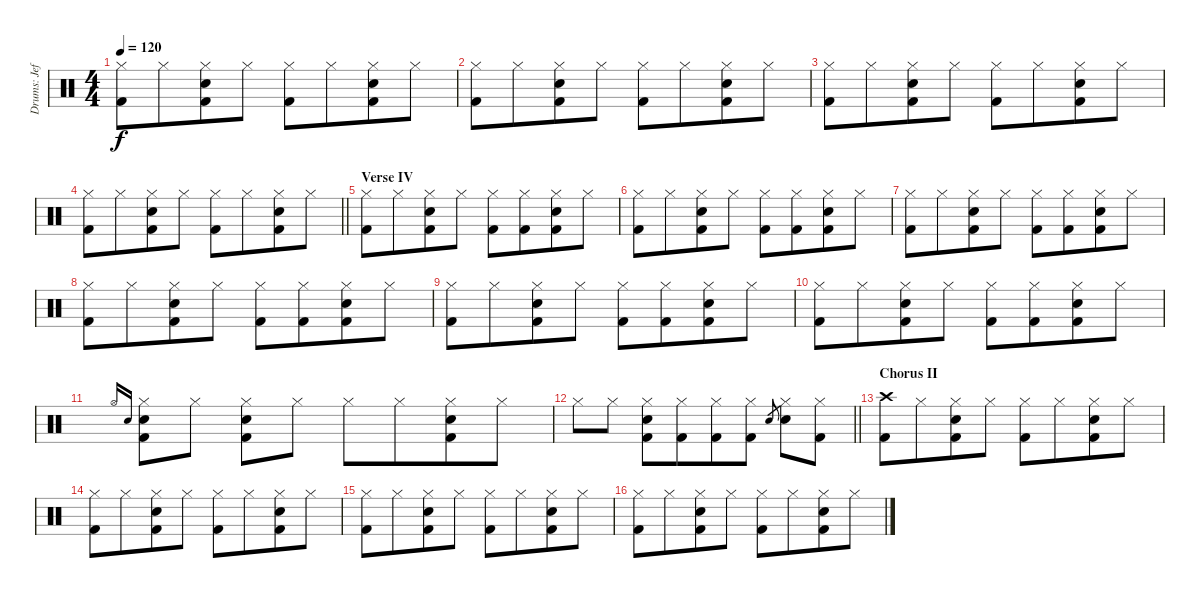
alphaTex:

\track ("Drums: Jeff" "Drums: Jef") {instrument percussion}
\staff {score}
\articulation defaults
\ts (4 4)
\tempo 120
\clef neutral
\ks c
("Hi-Hat (closed)" "Kick (hit) 2").8{dy f} "Hi-Hat (closed)".8{beam merge} ("Hi-Hat (closed)" "Electric Snare (hit)" "Kick (hit) 2").8 "Hi-Hat (closed)".8 ("Hi-Hat (closed)" "Kick (hit) 2").8 "Hi-Hat (closed)".8{beam merge} ("Hi-Hat (closed)" "Electric Snare (hit)" "Kick (hit) 2").8 "Hi-Hat (closed)".8 |
("Hi-Hat (closed)" "Kick (hit) 2").8 "Hi-Hat (closed)".8{beam merge} ("Hi-Hat (closed)" "Electric Snare (hit)" "Kick (hit) 2").8 "Hi-Hat (closed)".8 ("Hi-Hat (closed)" "Kick (hit) 2").8 "Hi-Hat (closed)".8{beam merge} ("Hi-Hat (closed)" "Electric Snare (hit)" "Kick (hit) 2").8 "Hi-Hat (closed)".8 |
("Hi-Hat (closed)" "Kick (hit) 2").8 "Hi-Hat (closed)".8{beam merge} ("Hi-Hat (closed)" "Electric Snare (hit)" "Kick (hit) 2").8 "Hi-Hat (closed)".8 ("Hi-Hat (closed)" "Kick (hit) 2").8 "Hi-Hat (closed)".8{beam merge} ("Hi-Hat (closed)" "Electric Snare (hit)" "Kick (hit) 2").8 "Hi-Hat (closed)".8 |
\barLineRight lightlight
("Hi-Hat (closed)" "Kick (hit) 2").8 "Hi-Hat (closed)".8{beam merge} ("Hi-Hat (closed)" "Electric Snare (hit)" "Kick (hit) 2").8 "Hi-Hat (closed)".8 ("Hi-Hat (closed)" "Kick (hit) 2").8 "Hi-Hat (closed)".8{beam merge} ("Hi-Hat (closed)" "Electric Snare (hit)" "Kick (hit) 2").8 "Hi-Hat (closed)".8 |
\section ("" "Verse IV")
("Hi-Hat (closed)" "Kick (hit) 2").8 "Hi-Hat (closed)".8{beam merge} ("Hi-Hat (closed)" "Electric Snare (hit)" "Kick (hit) 2").8 "Hi-Hat (closed)".8 ("Hi-Hat (closed)" "Kick (hit) 2").8 ("Hi-Hat (closed)" "Kick (hit) 2").8{beam merge} ("Hi-Hat (closed)" "Electric Snare (hit)" "Kick (hit) 2").8 "Hi-Hat (closed)".8 |
("Hi-Hat (closed)" "Kick (hit) 2").8 "Hi-Hat (closed)".8{beam merge} ("Hi-Hat (closed)" "Electric Snare (hit)" "Kick (hit) 2").8 "Hi-Hat (closed)".8 ("Hi-Hat (closed)" "Kick (hit) 2").8 ("Hi-Hat (closed)" "Kick (hit) 2").8{beam merge} ("Hi-Hat (closed)" "Electric Snare (hit)" "Kick (hit) 2").8 "Hi-Hat (closed)".8 |
("Hi-Hat (closed)" "Kick (hit) 2").8 "Hi-Hat (closed)".8{beam merge} ("Hi-Hat (closed)" "Electric Snare (hit)" "Kick (hit) 2").8 "Hi-Hat (closed)".8 ("Hi-Hat (closed)" "Kick (hit) 2").8 ("Hi-Hat (closed)" "Kick (hit) 2").8{beam merge} ("Hi-Hat (closed)" "Electric Snare (hit)" "Kick (hit) 2").8 "Hi-Hat (closed)".8 |
("Hi-Hat (closed)" "Kick (hit) 2").8 "Hi-Hat (closed)".8{beam merge} ("Hi-Hat (closed)" "Electric Snare (hit)" "Kick (hit) 2").8 "Hi-Hat (closed)".8 ("Hi-Hat (closed)" "Kick (hit) 2").8 ("Hi-Hat (closed)" "Kick (hit) 2").8{beam merge} ("Hi-Hat (closed)" "Electric Snare (hit)" "Kick (hit) 2").8 "Hi-Hat (closed)".8 |
("Hi-Hat (closed)" "Kick (hit) 2").8 "Hi-Hat (closed)".8{beam merge} ("Hi-Hat (closed)" "Electric Snare (hit)" "Kick (hit) 2").8 "Hi-Hat (closed)".8 ("Hi-Hat (closed)" "Kick (hit) 2").8 ("Hi-Hat (closed)" "Kick (hit) 2").8{beam merge} ("Hi-Hat (closed)" "Electric Snare (hit)" "Kick (hit) 2").8 "Hi-Hat (closed)".8 |
("Hi-Hat (closed)" "Kick (hit) 2").8 "Hi-Hat (closed)".8{beam merge} ("Hi-Hat (closed)" "Electric Snare (hit)" "Kick (hit) 2").8 "Hi-Hat (closed)".8 ("Hi-Hat (closed)" "Kick (hit) 2").8 ("Hi-Hat (closed)" "Kick (hit) 2").8{beam merge} ("Hi-Hat (closed)" "Electric Snare (hit)" "Kick (hit) 2").8 "Hi-Hat (closed)".8 |
"Hi-Hat (open)".16{gr onbeat} "Electric Snare (hit)".16{gr onbeat} ("Hi-Hat (closed)" "Snare (hit) 2" "Kick (hit) 2").8 "Hi-Hat (closed)".8 ("Hi-Hat (closed)" "Electric Snare (hit)" "Kick (hit) 2").8 "Hi-Hat (closed)".8 "Hi-Hat (closed)".8 "Hi-Hat (closed)".8{beam merge} ("Hi-Hat (closed)" "Electric Snare (hit)" "Kick (hit) 2").8 "Hi-Hat (closed)".8 |
\barLineRight lightlight "Hi-Hat (closed)".8 "Hi-Hat (closed)".8
("Hi-Hat (closed)" "Snare (hit) 2" "Kick (hit) 2").8 ("Hi-Hat (closed)" "Kick (hit) 2").8{beam merge} ("Hi-Hat (closed)" "Kick (hit) 2").8 ("Hi-Hat (closed)" "Kick (hit) 2").8 "Electric Snare (hit)".8{gr} ("Hi-Hat (closed)" "Snare (hit) 2").8 ("Hi-Hat (closed)" "Kick (hit) 2").8 |
\section ("" "Chorus II")
("Crash high (hit)" "Kick (hit) 2").8 "Hi-Hat (closed)".8{beam merge} ("Hi-Hat (closed)" "Electric Snare (hit)" "Kick (hit) 2").8 "Hi-Hat (closed)".8 ("Hi-Hat (closed)" "Kick (hit) 2").8 "Hi-Hat (closed)".8{beam merge} ("Hi-Hat (closed)" "Electric Snare (hit)" "Kick (hit) 2").8 "Hi-Hat (closed)".8 |
("Hi-Hat (closed)" "Kick (hit) 2").8 "Hi-Hat (closed)".8{beam merge} ("Hi-Hat (closed)" "Electric Snare (hit)" "Kick (hit) 2").8 "Hi-Hat (closed)".8 ("Hi-Hat (closed)" "Kick (hit) 2").8 "Hi-Hat (closed)".8{beam merge} ("Hi-Hat (closed)" "Electric Snare (hit)" "Kick (hit) 2").8 "Hi-Hat (closed)".8 |
("Hi-Hat (closed)" "Kick (hit) 2").8 "Hi-Hat (closed)".8{beam merge} ("Hi-Hat (closed)" "Electric Snare (hit)" "Kick (hit) 2").8 "Hi-Hat (closed)".8 ("Hi-Hat (closed)" "Kick (hit) 2").8 "Hi-Hat (closed)".8{beam merge} ("Hi-Hat (closed)" "Electric Snare (hit)" "Kick (hit) 2").8 "Hi-Hat (closed)".8 |
("Hi-Hat (closed)" "Kick (hit) 2").8 "Hi-Hat (closed)".8{beam merge} ("Hi-Hat (closed)" "Electric Snare (hit)" "Kick (hit) 2").8 "Hi-Hat (closed)".8 ("Hi-Hat (closed)" "Kick (hit) 2").8 "Hi-Hat (closed)".8{beam merge} ("Hi-Hat (closed)" "Electric Snare (hit)" "Kick (hit) 2").8 "Hi-Hat (closed)".8
